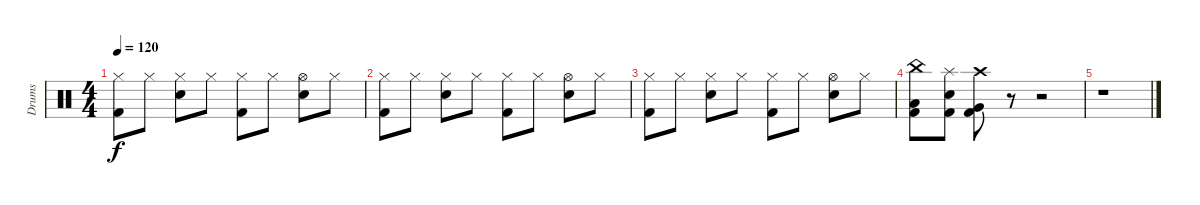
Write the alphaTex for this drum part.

\track ("Drums" "Drums") {instrument percussion}
\staff {score}
\articulation defaults
\ts (4 4)
\tempo 120
\clef neutral
\ks c
("Kick (hit) 2" "Hi-Hat (closed)").8{dy f} "Hi-Hat (closed)".8 ("Snare (hit) 2" "Hi-Hat (closed)").8 "Hi-Hat (closed)".8 ("Kick (hit) 2" "Hi-Hat (closed)").8 "Hi-Hat (closed)".8 ("Snare (hit) 2" "Hi-Hat (open)").8 "Hi-Hat (closed)".8 |
("Kick (hit) 2" "Hi-Hat (closed)").8 "Hi-Hat (closed)".8 ("Snare (hit) 2" "Hi-Hat (closed)").8 "Hi-Hat (closed)".8 ("Kick (hit) 2" "Hi-Hat (closed)").8 "Hi-Hat (closed)".8 ("Snare (hit) 2" "Hi-Hat (open)").8 "Hi-Hat (closed)".8 |
("Kick (hit) 2" "Hi-Hat (closed)").8 "Hi-Hat (closed)".8 ("Snare (hit) 2" "Hi-Hat (closed)").8 "Hi-Hat (closed)".8 ("Kick (hit) 2" "Hi-Hat (closed)").8 "Hi-Hat (closed)".8 ("Snare (hit) 2" "Hi-Hat (open)").8 "Hi-Hat (closed)".8 |
("Kick (hit) 2" "Low Tom (hit)" "China (hit)").8 ("Kick (hit) 2" "Snare (hit) 2" "Splash (hit)").8 ("Kick (hit) 2" "Very Low Tom (hit)" "Crash high (hit)").8 r.8 r.2 |
r.1
